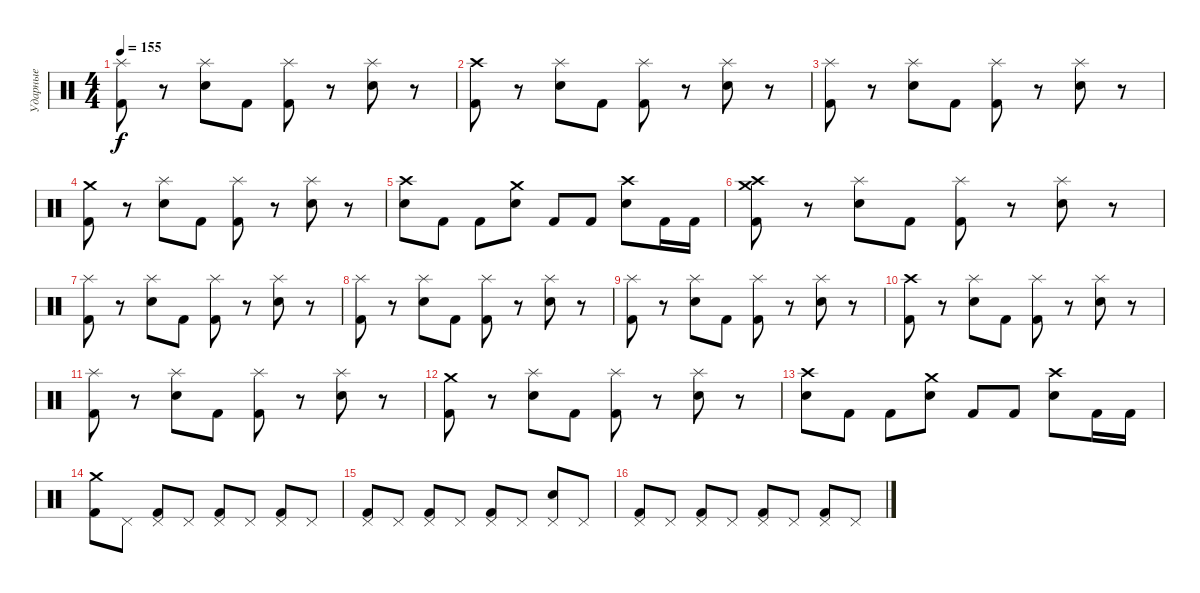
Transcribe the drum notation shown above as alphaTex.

\track ("Ударные" "Ударные") {instrument percussion}
\staff {score}
\articulation defaults
\ts (4 4)
\tempo 155
\clef neutral
\ks c
("Splash (hit)" "Kick (hit) 2").8{dy f} r.8 ("Splash (hit)" "Electric Snare (hit)").8 "Kick (hit) 2".8 ("Splash (hit)" "Kick (hit) 2").8 r.8 ("Splash (hit)" "Electric Snare (hit)").8 r.8 |
("Crash high (hit)" "Kick (hit) 2").8 r.8 ("Splash (hit)" "Electric Snare (hit)").8 "Kick (hit) 2".8 ("Splash (hit)" "Kick (hit) 2").8 r.8 ("Splash (hit)" "Electric Snare (hit)").8 r.8 |
("Splash (hit)" "Kick (hit) 2").8 r.8 ("Splash (hit)" "Electric Snare (hit)").8 "Kick (hit) 2".8 ("Splash (hit)" "Kick (hit) 2").8 r.8 ("Splash (hit)" "Electric Snare (hit)").8 r.8 |
("Crash medium (hit)" "Kick (hit) 2").8 r.8 ("Splash (hit)" "Electric Snare (hit)").8 "Kick (hit) 2".8 ("Splash (hit)" "Kick (hit) 2").8 r.8 ("Splash (hit)" "Electric Snare (hit)").8 r.8 |
("Crash high (hit)" "Electric Snare (hit)").8 "Kick (hit) 2".8 "Kick (hit) 2".8 ("Crash medium (hit)" "Electric Snare (hit)").8 "Kick (hit) 2".8 "Kick (hit) 2".8 ("Crash high (hit)" "Electric Snare (hit)").8 "Kick (hit) 2".16 "Kick (hit) 2".16 |
("Crash medium (hit)" "Crash high (hit)" "Kick (hit) 2").8 r.8 ("Splash (hit)" "Electric Snare (hit)").8 "Kick (hit) 2".8 ("Splash (hit)" "Kick (hit) 2").8 r.8 ("Splash (hit)" "Electric Snare (hit)").8 r.8 |
("Splash (hit)" "Kick (hit) 2").8 r.8 ("Splash (hit)" "Electric Snare (hit)").8 "Kick (hit) 2".8 ("Splash (hit)" "Kick (hit) 2").8 r.8 ("Splash (hit)" "Electric Snare (hit)").8 r.8 |
("Splash (hit)" "Kick (hit) 2").8 r.8 ("Splash (hit)" "Electric Snare (hit)").8 "Kick (hit) 2".8 ("Splash (hit)" "Kick (hit) 2").8 r.8 ("Splash (hit)" "Electric Snare (hit)").8 r.8 |
("Splash (hit)" "Kick (hit) 2").8 r.8 ("Splash (hit)" "Electric Snare (hit)").8 "Kick (hit) 2".8 ("Splash (hit)" "Kick (hit) 2").8 r.8 ("Splash (hit)" "Electric Snare (hit)").8 r.8 |
("Crash high (hit)" "Kick (hit) 2").8 r.8 ("Splash (hit)" "Electric Snare (hit)").8 "Kick (hit) 2".8 ("Splash (hit)" "Kick (hit) 2").8 r.8 ("Splash (hit)" "Electric Snare (hit)").8 r.8 |
("Splash (hit)" "Kick (hit) 2").8 r.8 ("Splash (hit)" "Electric Snare (hit)").8 "Kick (hit) 2".8 ("Splash (hit)" "Kick (hit) 2").8 r.8 ("Splash (hit)" "Electric Snare (hit)").8 r.8 |
("Crash medium (hit)" "Kick (hit) 2").8 r.8 ("Splash (hit)" "Electric Snare (hit)").8 "Kick (hit) 2".8 ("Splash (hit)" "Kick (hit) 2").8 r.8 ("Splash (hit)" "Electric Snare (hit)").8 r.8 |
("Crash high (hit)" "Electric Snare (hit)").8 "Kick (hit) 2".8 "Kick (hit) 2".8 ("Crash medium (hit)" "Electric Snare (hit)").8 "Kick (hit) 2".8 "Kick (hit) 2".8 ("Crash high (hit)" "Electric Snare (hit)").8 "Kick (hit) 2".16 "Kick (hit) 2".16 |
("Crash medium (hit)" "Kick (hit) 2").8 "Pedal Hi-Hat (hit)".8 ("Pedal Hi-Hat (hit)" "Kick (hit) 2").8 "Pedal Hi-Hat (hit)".8 ("Pedal Hi-Hat (hit)" "Kick (hit) 2").8 "Pedal Hi-Hat (hit)".8 ("Pedal Hi-Hat (hit)" "Kick (hit) 2").8 "Pedal Hi-Hat (hit)".8 |
("Pedal Hi-Hat (hit)" "Kick (hit) 2").8 "Pedal Hi-Hat (hit)".8 ("Pedal Hi-Hat (hit)" "Kick (hit) 2").8 "Pedal Hi-Hat (hit)".8 ("Pedal Hi-Hat (hit)" "Kick (hit) 2").8 "Pedal Hi-Hat (hit)".8 ("Pedal Hi-Hat (hit)" "Electric Snare (hit)").8 "Pedal Hi-Hat (hit)".8 |
("Pedal Hi-Hat (hit)" "Kick (hit) 2").8 "Pedal Hi-Hat (hit)".8 ("Pedal Hi-Hat (hit)" "Kick (hit) 2").8 "Pedal Hi-Hat (hit)".8 ("Pedal Hi-Hat (hit)" "Kick (hit) 2").8 "Pedal Hi-Hat (hit)".8 ("Pedal Hi-Hat (hit)" "Kick (hit) 2").8 "Pedal Hi-Hat (hit)".8
